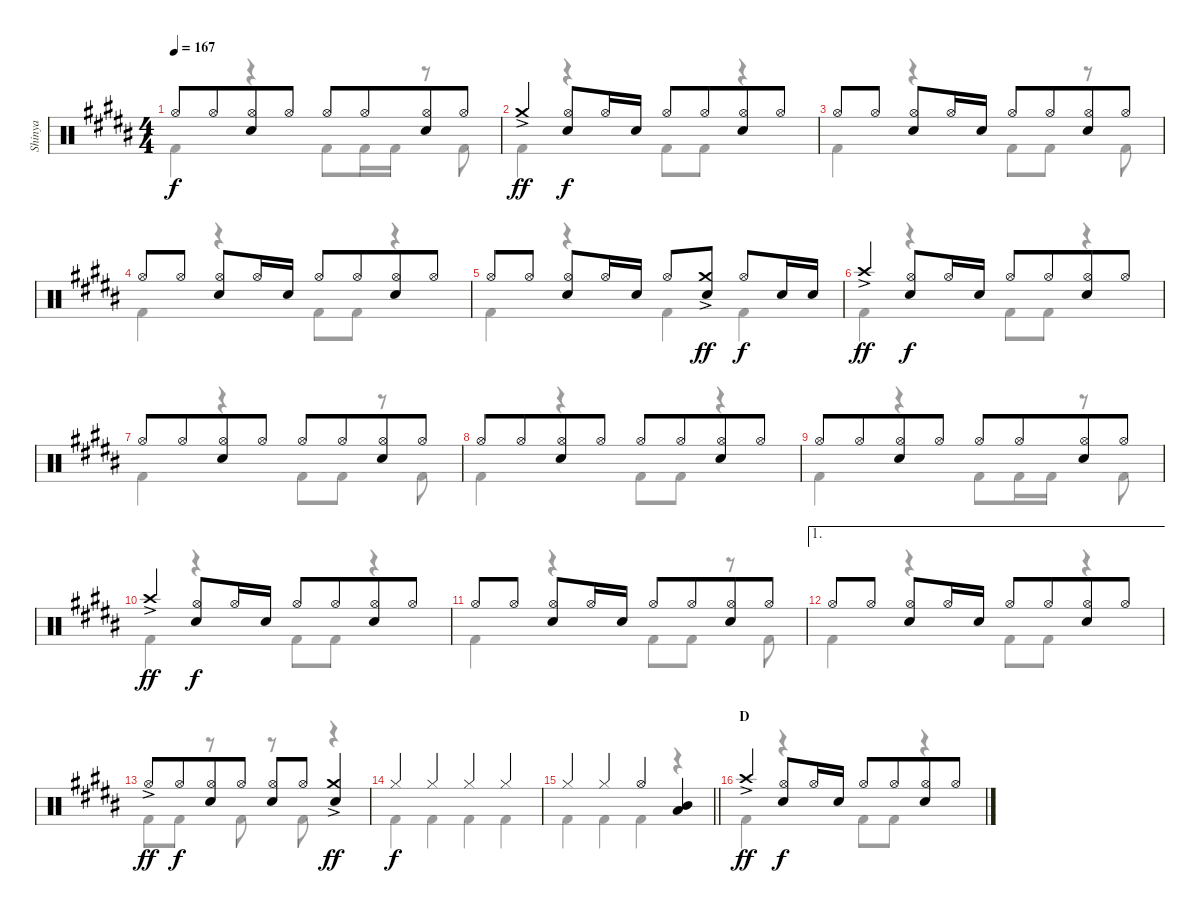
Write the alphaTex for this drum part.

\track ("Shinya" "Shinya") {instrument percussion}
\staff {score}
\articulation defaults
\voice
\ts (4 4)
\tempo 167
\clef neutral
\ks g#minor "Hi-Hat (open)".8{dy f} "Hi-Hat (open)".8{beam merge}
("Hi-Hat (open)" "Snare (hit) 2").8 "Hi-Hat (open)".8 "Hi-Hat (open)".8 "Hi-Hat (open)".8{beam merge} ("Hi-Hat (open)" "Snare (hit) 2").8 "Hi-Hat (open)".8 |
"Crash medium (hit)"{ac}.4{dy ff} ("Hi-Hat (open)" "Snare (hit) 2").8{dy f} "Hi-Hat (open)".16 "Snare (hit) 2".16 "Hi-Hat (open)".8 "Hi-Hat (open)".8{beam merge} ("Hi-Hat (open)" "Snare (hit) 2").8 "Hi-Hat (open)".8 |
"Hi-Hat (open)".8 "Hi-Hat (open)".8 ("Hi-Hat (open)" "Snare (hit) 2").8 "Hi-Hat (open)".16 "Snare (hit) 2".16 "Hi-Hat (open)".8 "Hi-Hat (open)".8{beam merge} ("Hi-Hat (open)" "Snare (hit) 2").8 "Hi-Hat (open)".8 |
"Hi-Hat (open)".8 "Hi-Hat (open)".8 ("Hi-Hat (open)" "Snare (hit) 2").8 "Hi-Hat (open)".16 "Snare (hit) 2".16 "Hi-Hat (open)".8 "Hi-Hat (open)".8{beam merge} ("Hi-Hat (open)" "Snare (hit) 2").8 "Hi-Hat (open)".8 |
"Hi-Hat (open)".8 "Hi-Hat (open)".8 ("Hi-Hat (open)" "Snare (hit) 2").8 "Hi-Hat (open)".16 "Snare (hit) 2".16 "Hi-Hat (open)".8 ("Crash medium (hit)"{ac} "Snare (hit) 2").8{dy ff} "Hi-Hat (open)".8{dy f} "Snare (hit) 2".16 "Snare (hit) 2".16 |
"Crash high (hit)"{ac}.4{dy ff} ("Hi-Hat (open)" "Snare (hit) 2").8{dy f} "Hi-Hat (open)".16 "Snare (hit) 2".16 "Hi-Hat (open)".8 "Hi-Hat (open)".8{beam merge} ("Hi-Hat (open)" "Snare (hit) 2").8 "Hi-Hat (open)".8 |
"Hi-Hat (open)".8 "Hi-Hat (open)".8{beam merge} ("Hi-Hat (open)" "Snare (hit) 2").8 "Hi-Hat (open)".8 "Hi-Hat (open)".8 "Hi-Hat (open)".8{beam merge} ("Hi-Hat (open)" "Snare (hit) 2").8 "Hi-Hat (open)".8 |
"Hi-Hat (open)".8 "Hi-Hat (open)".8{beam merge} ("Hi-Hat (open)" "Snare (hit) 2").8 "Hi-Hat (open)".8 "Hi-Hat (open)".8 "Hi-Hat (open)".8{beam merge} ("Hi-Hat (open)" "Snare (hit) 2").8 "Hi-Hat (open)".8 |
"Hi-Hat (open)".8 "Hi-Hat (open)".8{beam merge} ("Hi-Hat (open)" "Snare (hit) 2").8 "Hi-Hat (open)".8 "Hi-Hat (open)".8 "Hi-Hat (open)".8{beam merge} ("Hi-Hat (open)" "Snare (hit) 2").8 "Hi-Hat (open)".8 |
"Crash high (hit)"{ac}.4{dy ff} ("Hi-Hat (open)" "Snare (hit) 2").8{dy f} "Hi-Hat (open)".16 "Snare (hit) 2".16 "Hi-Hat (open)".8 "Hi-Hat (open)".8{beam merge} ("Hi-Hat (open)" "Snare (hit) 2").8 "Hi-Hat (open)".8 |
"Hi-Hat (open)".8 "Hi-Hat (open)".8 ("Hi-Hat (open)" "Snare (hit) 2").8 "Hi-Hat (open)".16 "Snare (hit) 2".16 "Hi-Hat (open)".8 "Hi-Hat (open)".8{beam merge} ("Hi-Hat (open)" "Snare (hit) 2").8 "Hi-Hat (open)".8 |
\ae 1 "Hi-Hat (open)".8 "Hi-Hat (open)".8
("Hi-Hat (open)" "Snare (hit) 2").8 "Hi-Hat (open)".16 "Snare (hit) 2".16 "Hi-Hat (open)".8 "Hi-Hat (open)".8{beam merge} ("Hi-Hat (open)" "Snare (hit) 2").8 "Hi-Hat (open)".8 |
"Hi-Hat (open)"{ac}.8{dy ff} "Hi-Hat (open)".8{dy f beam merge} ("Hi-Hat (open)" "Snare (hit) 2").8 "Hi-Hat (open)".8{beam split} ("Hi-Hat (open)" "Snare (hit) 2").8 "Hi-Hat (open)".8 ("Crash medium (hit)"{ac} "Snare (hit) 2").4{dy ff} |
"Hi-Hat (closed)".4{dy f} "Hi-Hat (closed)".4 "Hi-Hat (closed)".4 "Hi-Hat (closed)".4 |
\barLineRight lightlight "Hi-Hat (closed)".4 "Hi-Hat (closed)".4 "Hi-Hat (open)".4
("Mid Tom (hit)" "Low Tom (hit)").4 |
\section ("" "D")
"Crash high (hit)"{ac}.4{dy ff} ("Hi-Hat (open)" "Snare (hit) 2").8{dy f} "Hi-Hat (open)".16 "Snare (hit) 2".16 "Hi-Hat (open)".8 "Hi-Hat (open)".8{beam merge} ("Hi-Hat (open)" "Snare (hit) 2").8 "Hi-Hat (open)".8
\voice
\clef neutral
\ottava regular
\simile none
\ks g#minor "Kick (hit) 2".4{dy f}
r.4 "Kick (hit) 2".8 "Kick (hit) 2".16 "Kick (hit) 2".16 r.8 "Kick (hit) 2".8 |
"Kick (hit) 2".4 r.4 "Kick (hit) 2".8 "Kick (hit) 2".8 r.4 |
"Kick (hit) 2".4 r.4 "Kick (hit) 2".8 "Kick (hit) 2".8 r.8 "Kick (hit) 2".8 |
"Kick (hit) 2".4 r.4 "Kick (hit) 2".8 "Kick (hit) 2".8 r.4 |
"Kick (hit) 2".4 r.4 "Kick (hit) 2".4 "Kick (hit) 2".4 |
"Kick (hit) 2".4 r.4 "Kick (hit) 2".8 "Kick (hit) 2".8 r.4 |
"Kick (hit) 2".4 r.4 "Kick (hit) 2".8 "Kick (hit) 2".8 r.8 "Kick (hit) 2".8 |
"Kick (hit) 2".4 r.4 "Kick (hit) 2".8 "Kick (hit) 2".8 r.4 |
"Kick (hit) 2".4 r.4 "Kick (hit) 2".8 "Kick (hit) 2".16 "Kick (hit) 2".16 r.8 "Kick (hit) 2".8 |
"Kick (hit) 2".4 r.4 "Kick (hit) 2".8 "Kick (hit) 2".8 r.4 |
"Kick (hit) 2".4 r.4 "Kick (hit) 2".8 "Kick (hit) 2".8 r.8 "Kick (hit) 2".8 |
"Kick (hit) 2".4 r.4 "Kick (hit) 2".8 "Kick (hit) 2".8 r.4 |
"Kick (hit) 2".8 "Kick (hit) 2".8 r.8 "Kick (hit) 2".8 r.8 "Kick (hit) 2".8 r.4 |
"Kick (hit) 2".4 "Kick (hit) 2".4 "Kick (hit) 2".4 "Kick (hit) 2".4 |
\barLineRight lightlight "Kick (hit) 2".4 "Kick (hit) 2".4 "Kick (hit) 2".4
r.4 |
"Kick (hit) 2".4 r.4 "Kick (hit) 2".8 "Kick (hit) 2".8 r.4
